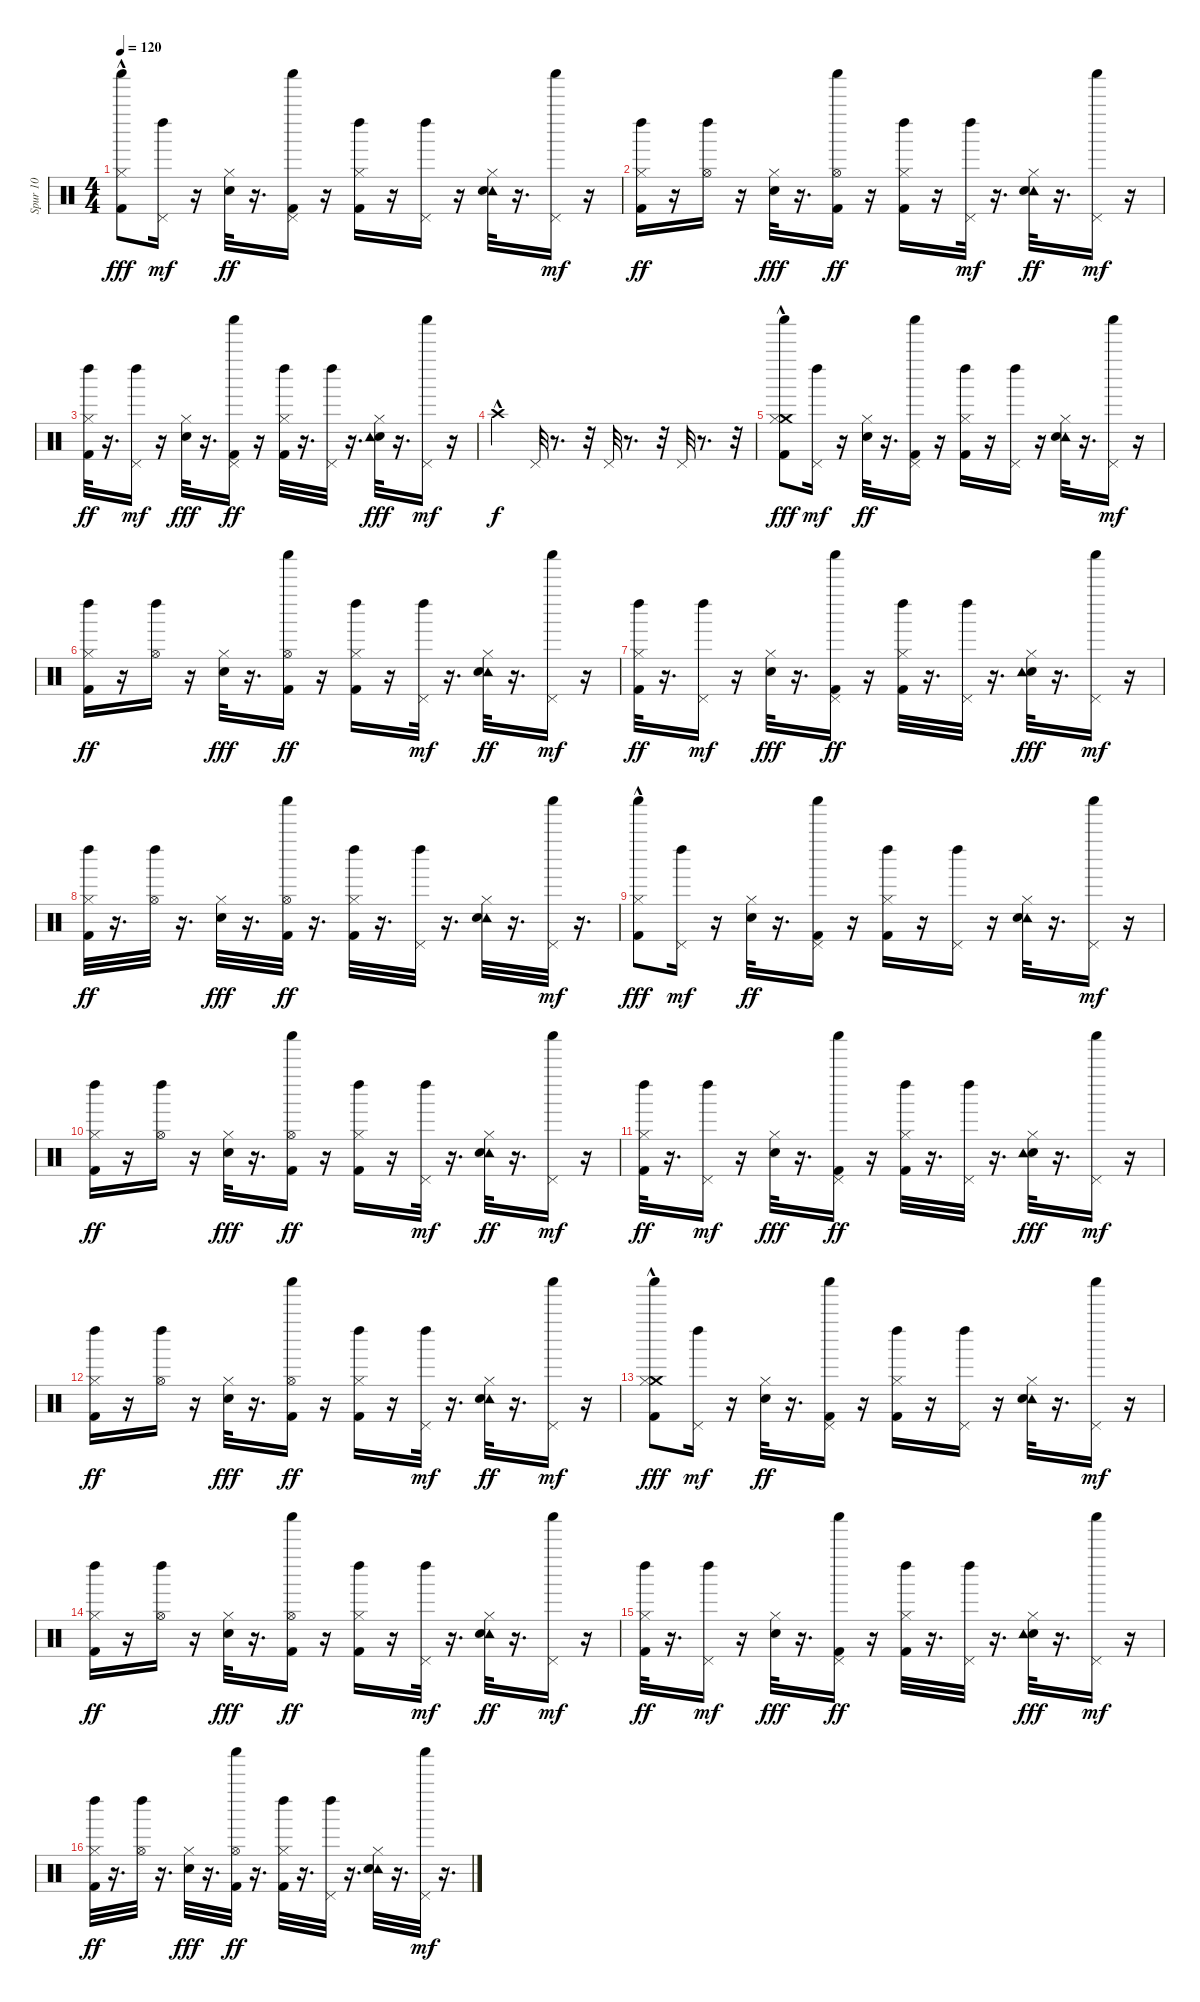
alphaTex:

\track ("Spur 10" "Spur 10") {instrument percussion}
\staff {score}
\articulation defaults
\ts (4 4)
\tempo 120
\clef neutral
\ks c
("Shaker (hit)"{hac} "Kick (hit) 2" "Hi-Hat (closed)").8{dy fff} ("Left Maraca (hit)" "Pedal Hi-Hat (hit)").16{dy mf} r.16 ("Electric Snare (hit)" "Hi-Hat (closed)").32{dy ff} r.16{d} ("Shaker (hit)" "Kick (hit) 2" "Pedal Hi-Hat (hit)").16 r.16 ("Left Maraca (hit)" "Hi-Hat (closed)" "Kick (hit) 2").16 r.16 ("Left Maraca (hit)" "Pedal Hi-Hat (hit)").16 r.16 ("Tambourine (hit)" "Electric Snare (hit)" "Hi-Hat (closed)").32 r.16{d} ("Pedal Hi-Hat (hit)" "Shaker (hit)").16{dy mf} r.16 |
("Kick (hit) 2" "Hi-Hat (closed)" "Left Maraca (hit)").16{dy ff} r.16 ("Left Maraca (hit)" "Hi-Hat (open)").16 r.16 ("Hi-Hat (closed)" "Electric Snare (hit)").32{dy fff} r.16{d} ("Shaker (hit)" "Hi-Hat (open)" "Kick (hit) 2").16{dy ff} r.16 ("Left Maraca (hit)" "Hi-Hat (closed)" "Kick (hit) 2").16 r.16 ("Left Maraca (hit)" "Pedal Hi-Hat (hit)").32{dy mf} r.16{d} ("Tambourine (hit)" "Electric Snare (hit)" "Hi-Hat (closed)").32{dy ff} r.16{d} ("Shaker (hit)" "Pedal Hi-Hat (hit)").16{dy mf} r.16 |
("Kick (hit) 2" "Hi-Hat (closed)" "Left Maraca (hit)").32{dy ff} r.16{d} ("Left Maraca (hit)" "Pedal Hi-Hat (hit)").16{dy mf} r.16 ("Hi-Hat (closed)" "Electric Snare (hit)").32{dy fff} r.16{d} ("Shaker (hit)" "Kick (hit) 2" "Pedal Hi-Hat (hit)").16{dy ff} r.16 ("Left Maraca (hit)" "Hi-Hat (closed)" "Kick (hit) 2").32 r.16{d} ("Pedal Hi-Hat (hit)" "Left Maraca (hit)").32 r.16{d} ("Hi-Hat (closed)" "Electric Snare (hit)" "Tambourine (hit)").32{dy fff} r.16{d} ("Shaker (hit)" "Pedal Hi-Hat (hit)").16{dy mf} r.16 |
"Crash high (hit)"{hac}.4{dy f} "Pedal Hi-Hat (hit)".32 r.8{d} r.32 "Pedal Hi-Hat (hit)".32 r.8{d} r.32 "Pedal Hi-Hat (hit)".32 r.8{d} r.32 |
("Crash medium (hit)" "Shaker (hit)"{hac} "Kick (hit) 2" "Hi-Hat (closed)").8{dy fff} ("Left Maraca (hit)" "Pedal Hi-Hat (hit)").16{dy mf} r.16 ("Electric Snare (hit)" "Hi-Hat (closed)").32{dy ff} r.16{d} ("Shaker (hit)" "Kick (hit) 2" "Pedal Hi-Hat (hit)").16 r.16 ("Left Maraca (hit)" "Hi-Hat (closed)" "Kick (hit) 2").16 r.16 ("Left Maraca (hit)" "Pedal Hi-Hat (hit)").16 r.16 ("Tambourine (hit)" "Electric Snare (hit)" "Hi-Hat (closed)").32 r.16{d} ("Pedal Hi-Hat (hit)" "Shaker (hit)").16{dy mf} r.16 |
("Kick (hit) 2" "Hi-Hat (closed)" "Left Maraca (hit)").16{dy ff} r.16 ("Left Maraca (hit)" "Hi-Hat (open)").16 r.16 ("Hi-Hat (closed)" "Electric Snare (hit)").32{dy fff} r.16{d} ("Shaker (hit)" "Hi-Hat (open)" "Kick (hit) 2").16{dy ff} r.16 ("Left Maraca (hit)" "Hi-Hat (closed)" "Kick (hit) 2").16 r.16 ("Left Maraca (hit)" "Pedal Hi-Hat (hit)").32{dy mf} r.16{d} ("Tambourine (hit)" "Electric Snare (hit)" "Hi-Hat (closed)").32{dy ff} r.16{d} ("Shaker (hit)" "Pedal Hi-Hat (hit)").16{dy mf} r.16 |
("Kick (hit) 2" "Hi-Hat (closed)" "Left Maraca (hit)").32{dy ff} r.16{d} ("Left Maraca (hit)" "Pedal Hi-Hat (hit)").16{dy mf} r.16 ("Hi-Hat (closed)" "Electric Snare (hit)").32{dy fff} r.16{d} ("Shaker (hit)" "Kick (hit) 2" "Pedal Hi-Hat (hit)").16{dy ff} r.16 ("Left Maraca (hit)" "Hi-Hat (closed)" "Kick (hit) 2").32 r.16{d} ("Pedal Hi-Hat (hit)" "Left Maraca (hit)").32 r.16{d} ("Hi-Hat (closed)" "Electric Snare (hit)" "Tambourine (hit)").32{dy fff} r.16{d} ("Shaker (hit)" "Pedal Hi-Hat (hit)").16{dy mf} r.16 |
("Kick (hit) 2" "Hi-Hat (closed)" "Left Maraca (hit)").32{dy ff} r.16{d} ("Left Maraca (hit)" "Hi-Hat (open)").32 r.16{d} ("Electric Snare (hit)" "Hi-Hat (closed)").32{dy fff} r.16{d} ("Hi-Hat (open)" "Kick (hit) 2" "Shaker (hit)").32{dy ff} r.16{d} ("Left Maraca (hit)" "Hi-Hat (closed)" "Kick (hit) 2").32 r.16{d} ("Left Maraca (hit)" "Pedal Hi-Hat (hit)").32 r.16{d} ("Tambourine (hit)" "Electric Snare (hit)" "Hi-Hat (closed)").32 r.16{d} ("Pedal Hi-Hat (hit)" "Shaker (hit)").32{dy mf} r.16{d} |
("Shaker (hit)"{hac} "Kick (hit) 2" "Hi-Hat (closed)").8{dy fff} ("Left Maraca (hit)" "Pedal Hi-Hat (hit)").16{dy mf} r.16 ("Electric Snare (hit)" "Hi-Hat (closed)").32{dy ff} r.16{d} ("Shaker (hit)" "Kick (hit) 2" "Pedal Hi-Hat (hit)").16 r.16 ("Left Maraca (hit)" "Hi-Hat (closed)" "Kick (hit) 2").16 r.16 ("Left Maraca (hit)" "Pedal Hi-Hat (hit)").16 r.16 ("Tambourine (hit)" "Electric Snare (hit)" "Hi-Hat (closed)").32 r.16{d} ("Pedal Hi-Hat (hit)" "Shaker (hit)").16{dy mf} r.16 |
("Kick (hit) 2" "Hi-Hat (closed)" "Left Maraca (hit)").16{dy ff} r.16 ("Left Maraca (hit)" "Hi-Hat (open)").16 r.16 ("Hi-Hat (closed)" "Electric Snare (hit)").32{dy fff} r.16{d} ("Shaker (hit)" "Hi-Hat (open)" "Kick (hit) 2").16{dy ff} r.16 ("Left Maraca (hit)" "Hi-Hat (closed)" "Kick (hit) 2").16 r.16 ("Left Maraca (hit)" "Pedal Hi-Hat (hit)").32{dy mf} r.16{d} ("Tambourine (hit)" "Electric Snare (hit)" "Hi-Hat (closed)").32{dy ff} r.16{d} ("Shaker (hit)" "Pedal Hi-Hat (hit)").16{dy mf} r.16 |
("Kick (hit) 2" "Hi-Hat (closed)" "Left Maraca (hit)").32{dy ff} r.16{d} ("Left Maraca (hit)" "Pedal Hi-Hat (hit)").16{dy mf} r.16 ("Hi-Hat (closed)" "Electric Snare (hit)").32{dy fff} r.16{d} ("Shaker (hit)" "Kick (hit) 2" "Pedal Hi-Hat (hit)").16{dy ff} r.16 ("Left Maraca (hit)" "Hi-Hat (closed)" "Kick (hit) 2").32 r.16{d} ("Pedal Hi-Hat (hit)" "Left Maraca (hit)").32 r.16{d} ("Hi-Hat (closed)" "Electric Snare (hit)" "Tambourine (hit)").32{dy fff} r.16{d} ("Shaker (hit)" "Pedal Hi-Hat (hit)").16{dy mf} r.16 |
("Kick (hit) 2" "Hi-Hat (closed)" "Left Maraca (hit)").16{dy ff} r.16 ("Left Maraca (hit)" "Hi-Hat (open)").16 r.16 ("Hi-Hat (closed)" "Electric Snare (hit)").32{dy fff} r.16{d} ("Shaker (hit)" "Hi-Hat (open)" "Kick (hit) 2").16{dy ff} r.16 ("Left Maraca (hit)" "Hi-Hat (closed)" "Kick (hit) 2").16 r.16 ("Left Maraca (hit)" "Pedal Hi-Hat (hit)").32{dy mf} r.16{d} ("Tambourine (hit)" "Electric Snare (hit)" "Hi-Hat (closed)").32{dy ff} r.16{d} ("Shaker (hit)" "Pedal Hi-Hat (hit)").16{dy mf} r.16 |
("Crash medium (hit)" "Shaker (hit)"{hac} "Kick (hit) 2" "Hi-Hat (closed)").8{dy fff} ("Left Maraca (hit)" "Pedal Hi-Hat (hit)").16{dy mf} r.16 ("Electric Snare (hit)" "Hi-Hat (closed)").32{dy ff} r.16{d} ("Shaker (hit)" "Kick (hit) 2" "Pedal Hi-Hat (hit)").16 r.16 ("Left Maraca (hit)" "Hi-Hat (closed)" "Kick (hit) 2").16 r.16 ("Left Maraca (hit)" "Pedal Hi-Hat (hit)").16 r.16 ("Tambourine (hit)" "Electric Snare (hit)" "Hi-Hat (closed)").32 r.16{d} ("Pedal Hi-Hat (hit)" "Shaker (hit)").16{dy mf} r.16 |
("Kick (hit) 2" "Hi-Hat (closed)" "Left Maraca (hit)").16{dy ff} r.16 ("Left Maraca (hit)" "Hi-Hat (open)").16 r.16 ("Hi-Hat (closed)" "Electric Snare (hit)").32{dy fff} r.16{d} ("Shaker (hit)" "Hi-Hat (open)" "Kick (hit) 2").16{dy ff} r.16 ("Left Maraca (hit)" "Hi-Hat (closed)" "Kick (hit) 2").16 r.16 ("Left Maraca (hit)" "Pedal Hi-Hat (hit)").32{dy mf} r.16{d} ("Tambourine (hit)" "Electric Snare (hit)" "Hi-Hat (closed)").32{dy ff} r.16{d} ("Shaker (hit)" "Pedal Hi-Hat (hit)").16{dy mf} r.16 |
("Kick (hit) 2" "Hi-Hat (closed)" "Left Maraca (hit)").32{dy ff} r.16{d} ("Left Maraca (hit)" "Pedal Hi-Hat (hit)").16{dy mf} r.16 ("Hi-Hat (closed)" "Electric Snare (hit)").32{dy fff} r.16{d} ("Shaker (hit)" "Kick (hit) 2" "Pedal Hi-Hat (hit)").16{dy ff} r.16 ("Left Maraca (hit)" "Hi-Hat (closed)" "Kick (hit) 2").32 r.16{d} ("Pedal Hi-Hat (hit)" "Left Maraca (hit)").32 r.16{d} ("Hi-Hat (closed)" "Electric Snare (hit)" "Tambourine (hit)").32{dy fff} r.16{d} ("Shaker (hit)" "Pedal Hi-Hat (hit)").16{dy mf} r.16 |
("Kick (hit) 2" "Hi-Hat (closed)" "Left Maraca (hit)").32{dy ff} r.16{d} ("Left Maraca (hit)" "Hi-Hat (open)").32 r.16{d} ("Electric Snare (hit)" "Hi-Hat (closed)").32{dy fff} r.16{d} ("Hi-Hat (open)" "Kick (hit) 2" "Shaker (hit)").32{dy ff} r.16{d} ("Left Maraca (hit)" "Hi-Hat (closed)" "Kick (hit) 2").32 r.16{d} ("Left Maraca (hit)" "Pedal Hi-Hat (hit)").32 r.16{d} ("Tambourine (hit)" "Electric Snare (hit)" "Hi-Hat (closed)").32 r.16{d} ("Pedal Hi-Hat (hit)" "Shaker (hit)").32{dy mf} r.16{d}
